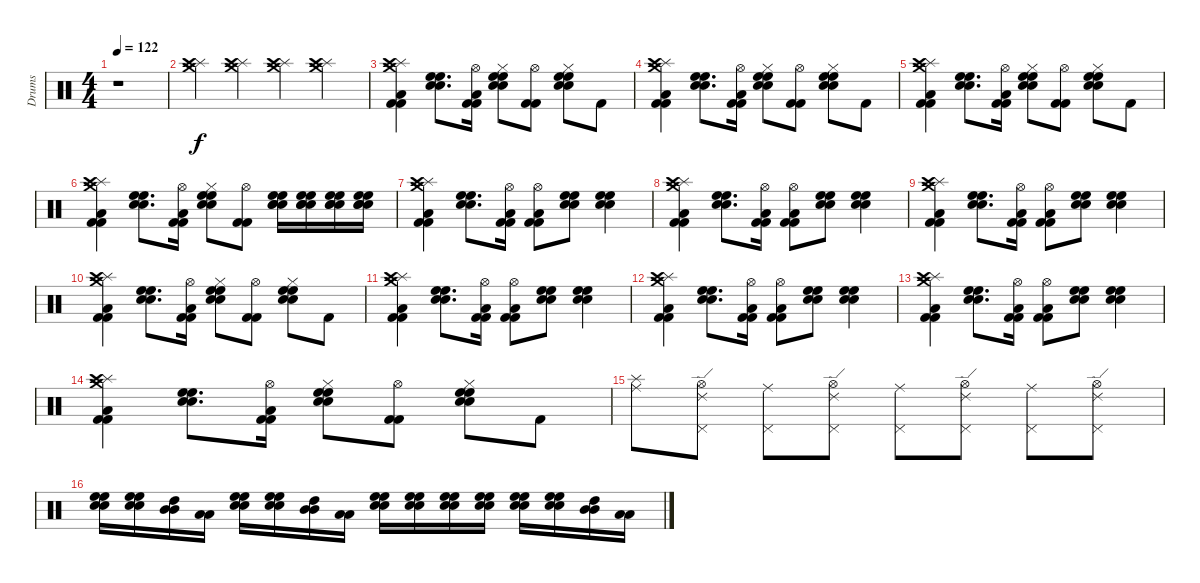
\track ("Drums" "Drums") {instrument percussion}
\staff {score}
\articulation defaults
\ts (4 4)
\tempo 122
\clef neutral
\ks c
r.1{dy f} |
("Crash medium (hit)" "Splash (hit)" "Crash high (hit)").4 ("Crash medium (hit)" "Splash (hit)" "Crash high (hit)").4 ("Crash medium (hit)" "Splash (hit)" "Crash high (hit)").4 ("Crash medium (hit)" "Splash (hit)" "Crash high (hit)").4 |
("Crash medium (hit)" "Splash (hit)" "Crash high (hit)" "Low Floor Tom (hit)" "Kick (hit) 2" "Kick (hit) 2").4 ("Electric Snare (hit)" "High Floor Tom (hit)" "Electric Snare (hit)" "High Floor Tom (hit)").8{d} ("Hi-Hat (open)" "Low Floor Tom (hit)" "Kick (hit) 2" "Kick (hit) 2").16 ("Hi-Hat (closed)" "Electric Snare (hit)" "High Floor Tom (hit)" "Electric Snare (hit)" "High Floor Tom (hit)").8 ("Hi-Hat (open)" "Kick (hit) 2" "Kick (hit) 2").8 ("Hi-Hat (closed)" "Electric Snare (hit)" "High Floor Tom (hit)" "Electric Snare (hit)" "High Floor Tom (hit)").8 "Kick (hit) 2".8 |
("Crash medium (hit)" "Splash (hit)" "Crash high (hit)" "Low Floor Tom (hit)" "Kick (hit) 2" "Kick (hit) 2").4 ("Electric Snare (hit)" "High Floor Tom (hit)" "Electric Snare (hit)" "High Floor Tom (hit)").8{d} ("Hi-Hat (open)" "Low Floor Tom (hit)" "Kick (hit) 2" "Kick (hit) 2").16 ("Hi-Hat (closed)" "Electric Snare (hit)" "High Floor Tom (hit)" "Electric Snare (hit)" "High Floor Tom (hit)").8 ("Hi-Hat (open)" "Kick (hit) 2" "Kick (hit) 2").8 ("Hi-Hat (closed)" "Electric Snare (hit)" "High Floor Tom (hit)" "Electric Snare (hit)" "High Floor Tom (hit)").8 "Kick (hit) 2".8 |
("Crash medium (hit)" "Splash (hit)" "Crash high (hit)" "Low Floor Tom (hit)" "Kick (hit) 2" "Kick (hit) 2").4 ("Electric Snare (hit)" "High Floor Tom (hit)" "Electric Snare (hit)" "High Floor Tom (hit)").8{d} ("Hi-Hat (open)" "Low Floor Tom (hit)" "Kick (hit) 2" "Kick (hit) 2").16 ("Hi-Hat (closed)" "Electric Snare (hit)" "High Floor Tom (hit)" "Electric Snare (hit)" "High Floor Tom (hit)").8 ("Hi-Hat (open)" "Kick (hit) 2" "Kick (hit) 2").8 ("Hi-Hat (closed)" "Electric Snare (hit)" "High Floor Tom (hit)" "Electric Snare (hit)" "High Floor Tom (hit)").8 "Kick (hit) 2".8 |
("Crash medium (hit)" "Splash (hit)" "Crash high (hit)" "Low Floor Tom (hit)" "Kick (hit) 2" "Kick (hit) 2").4 ("Electric Snare (hit)" "High Floor Tom (hit)" "Electric Snare (hit)" "High Floor Tom (hit)").8{d} ("Hi-Hat (open)" "Low Floor Tom (hit)" "Kick (hit) 2" "Kick (hit) 2").16 ("Hi-Hat (closed)" "Electric Snare (hit)" "High Floor Tom (hit)" "Electric Snare (hit)" "High Floor Tom (hit)").8 ("Hi-Hat (open)" "Kick (hit) 2" "Kick (hit) 2").8 ("Electric Snare (hit)" "Electric Snare (hit)" "High Floor Tom (hit)" "Electric Snare (hit)" "High Floor Tom (hit)").16 ("Electric Snare (hit)" "Electric Snare (hit)" "High Floor Tom (hit)" "Electric Snare (hit)" "High Floor Tom (hit)").16 ("Electric Snare (hit)" "Electric Snare (hit)" "High Floor Tom (hit)" "Electric Snare (hit)" "High Floor Tom (hit)").16 ("Electric Snare (hit)" "Electric Snare (hit)" "High Floor Tom (hit)" "Electric Snare (hit)" "High Floor Tom (hit)").16 |
("Crash medium (hit)" "Splash (hit)" "Crash high (hit)" "Low Floor Tom (hit)" "Kick (hit) 2" "Kick (hit) 2").4 ("Electric Snare (hit)" "High Floor Tom (hit)" "Electric Snare (hit)" "High Floor Tom (hit)").8{d} ("Hi-Hat (open)" "Low Floor Tom (hit)" "Kick (hit) 2" "Kick (hit) 2").16 ("Hi-Hat (open)" "Low Floor Tom (hit)" "Kick (hit) 2" "Kick (hit) 2").8 ("Electric Snare (hit)" "High Floor Tom (hit)" "Electric Snare (hit)" "High Floor Tom (hit)").8 ("Electric Snare (hit)" "High Floor Tom (hit)" "Electric Snare (hit)" "High Floor Tom (hit)").4 |
("Crash medium (hit)" "Splash (hit)" "Crash high (hit)" "Low Floor Tom (hit)" "Kick (hit) 2" "Kick (hit) 2").4 ("Electric Snare (hit)" "High Floor Tom (hit)" "Electric Snare (hit)" "High Floor Tom (hit)").8{d} ("Hi-Hat (open)" "Low Floor Tom (hit)" "Kick (hit) 2" "Kick (hit) 2").16 ("Hi-Hat (open)" "Low Floor Tom (hit)" "Kick (hit) 2" "Kick (hit) 2").8 ("Electric Snare (hit)" "High Floor Tom (hit)" "Electric Snare (hit)" "High Floor Tom (hit)").8 ("Electric Snare (hit)" "High Floor Tom (hit)" "Electric Snare (hit)" "High Floor Tom (hit)").4 |
("Crash medium (hit)" "Splash (hit)" "Crash high (hit)" "Low Floor Tom (hit)" "Kick (hit) 2" "Kick (hit) 2").4 ("Electric Snare (hit)" "High Floor Tom (hit)" "Electric Snare (hit)" "High Floor Tom (hit)").8{d} ("Hi-Hat (open)" "Low Floor Tom (hit)" "Kick (hit) 2" "Kick (hit) 2").16 ("Hi-Hat (open)" "Low Floor Tom (hit)" "Kick (hit) 2" "Kick (hit) 2").8 ("Electric Snare (hit)" "High Floor Tom (hit)" "Electric Snare (hit)" "High Floor Tom (hit)").8 ("Electric Snare (hit)" "High Floor Tom (hit)" "Electric Snare (hit)" "High Floor Tom (hit)").4 |
("Crash medium (hit)" "Splash (hit)" "Crash high (hit)" "Low Floor Tom (hit)" "Kick (hit) 2" "Kick (hit) 2").4 ("Electric Snare (hit)" "High Floor Tom (hit)" "Electric Snare (hit)" "High Floor Tom (hit)").8{d} ("Hi-Hat (open)" "Low Floor Tom (hit)" "Kick (hit) 2" "Kick (hit) 2").16 ("Hi-Hat (closed)" "Electric Snare (hit)" "High Floor Tom (hit)" "Electric Snare (hit)" "High Floor Tom (hit)").8 ("Hi-Hat (open)" "Kick (hit) 2" "Kick (hit) 2").8 ("Hi-Hat (closed)" "Electric Snare (hit)" "High Floor Tom (hit)" "Electric Snare (hit)" "High Floor Tom (hit)").8 "Kick (hit) 2".8 |
("Crash medium (hit)" "Splash (hit)" "Crash high (hit)" "Low Floor Tom (hit)" "Kick (hit) 2" "Kick (hit) 2").4 ("Electric Snare (hit)" "High Floor Tom (hit)" "Electric Snare (hit)" "High Floor Tom (hit)").8{d} ("Hi-Hat (open)" "Low Floor Tom (hit)" "Kick (hit) 2" "Kick (hit) 2").16 ("Hi-Hat (open)" "Low Floor Tom (hit)" "Kick (hit) 2" "Kick (hit) 2").8 ("Electric Snare (hit)" "High Floor Tom (hit)" "Electric Snare (hit)" "High Floor Tom (hit)").8 ("Electric Snare (hit)" "High Floor Tom (hit)" "Electric Snare (hit)" "High Floor Tom (hit)").4 |
("Crash medium (hit)" "Splash (hit)" "Crash high (hit)" "Low Floor Tom (hit)" "Kick (hit) 2" "Kick (hit) 2").4 ("Electric Snare (hit)" "High Floor Tom (hit)" "Electric Snare (hit)" "High Floor Tom (hit)").8{d} ("Hi-Hat (open)" "Low Floor Tom (hit)" "Kick (hit) 2" "Kick (hit) 2").16 ("Hi-Hat (open)" "Low Floor Tom (hit)" "Kick (hit) 2" "Kick (hit) 2").8 ("Electric Snare (hit)" "High Floor Tom (hit)" "Electric Snare (hit)" "High Floor Tom (hit)").8 ("Electric Snare (hit)" "High Floor Tom (hit)" "Electric Snare (hit)" "High Floor Tom (hit)").4 |
("Crash medium (hit)" "Splash (hit)" "Crash high (hit)" "Low Floor Tom (hit)" "Kick (hit) 2" "Kick (hit) 2").4 ("Electric Snare (hit)" "High Floor Tom (hit)" "Electric Snare (hit)" "High Floor Tom (hit)").8{d} ("Hi-Hat (open)" "Low Floor Tom (hit)" "Kick (hit) 2" "Kick (hit) 2").16 ("Hi-Hat (open)" "Low Floor Tom (hit)" "Kick (hit) 2" "Kick (hit) 2").8 ("Electric Snare (hit)" "High Floor Tom (hit)" "Electric Snare (hit)" "High Floor Tom (hit)").8 ("Electric Snare (hit)" "High Floor Tom (hit)" "Electric Snare (hit)" "High Floor Tom (hit)").4 |
("Crash medium (hit)" "Splash (hit)" "Crash high (hit)" "Low Floor Tom (hit)" "Kick (hit) 2" "Kick (hit) 2").4 ("Electric Snare (hit)" "High Floor Tom (hit)" "Electric Snare (hit)" "High Floor Tom (hit)").8{d} ("Hi-Hat (open)" "Low Floor Tom (hit)" "Kick (hit) 2" "Kick (hit) 2").16 ("Hi-Hat (closed)" "Electric Snare (hit)" "High Floor Tom (hit)" "Electric Snare (hit)" "High Floor Tom (hit)").8 ("Hi-Hat (open)" "Kick (hit) 2" "Kick (hit) 2").8 ("Hi-Hat (closed)" "Electric Snare (hit)" "High Floor Tom (hit)" "Electric Snare (hit)" "High Floor Tom (hit)").8 "Kick (hit) 2".8 |
("Splash (hit)" "Ride (middle)").8 ("Ride (edge) 2" "Hi-Hat (open)" "Pedal Hi-Hat (hit)").8 ("Pedal Hi-Hat (hit)" "Ride (middle)").8 ("Ride (edge) 2" "Hi-Hat (open)" "Pedal Hi-Hat (hit)").8 ("Pedal Hi-Hat (hit)" "Ride (middle)").8 ("Ride (edge) 2" "Hi-Hat (open)" "Pedal Hi-Hat (hit)").8 ("Pedal Hi-Hat (hit)" "Ride (middle)").8 ("Ride (edge) 2" "Hi-Hat (open)" "Pedal Hi-Hat (hit)").8 |
("High Floor Tom (hit)" "Electric Snare (hit)" "High Floor Tom (hit)" "Electric Snare (hit)").16 ("High Floor Tom (hit)" "Electric Snare (hit)" "High Floor Tom (hit)" "Electric Snare (hit)").16 ("Mid Tom (hit)" "High Tom (hit)" "Mid Tom (hit)").16 ("Low Tom (hit)" "Low Tom (hit)").16 ("High Floor Tom (hit)" "Electric Snare (hit)" "High Floor Tom (hit)" "Electric Snare (hit)").16 ("High Floor Tom (hit)" "Electric Snare (hit)" "High Floor Tom (hit)" "Electric Snare (hit)").16 ("Mid Tom (hit)" "High Tom (hit)" "Mid Tom (hit)").16 ("Low Tom (hit)" "Low Tom (hit)").16 ("High Floor Tom (hit)" "Electric Snare (hit)" "High Floor Tom (hit)" "Electric Snare (hit)").16 ("High Floor Tom (hit)" "Electric Snare (hit)" "High Floor Tom (hit)" "Electric Snare (hit)").16 ("High Floor Tom (hit)" "Electric Snare (hit)" "High Floor Tom (hit)" "Electric Snare (hit)").16 ("High Floor Tom (hit)" "Electric Snare (hit)" "High Floor Tom (hit)" "Electric Snare (hit)").16 ("High Floor Tom (hit)" "Electric Snare (hit)" "High Floor Tom (hit)" "Electric Snare (hit)").16 ("High Floor Tom (hit)" "Electric Snare (hit)" "High Floor Tom (hit)" "Electric Snare (hit)").16 ("Mid Tom (hit)" "High Tom (hit)" "Mid Tom (hit)").16 ("Low Tom (hit)" "Low Tom (hit)").16
